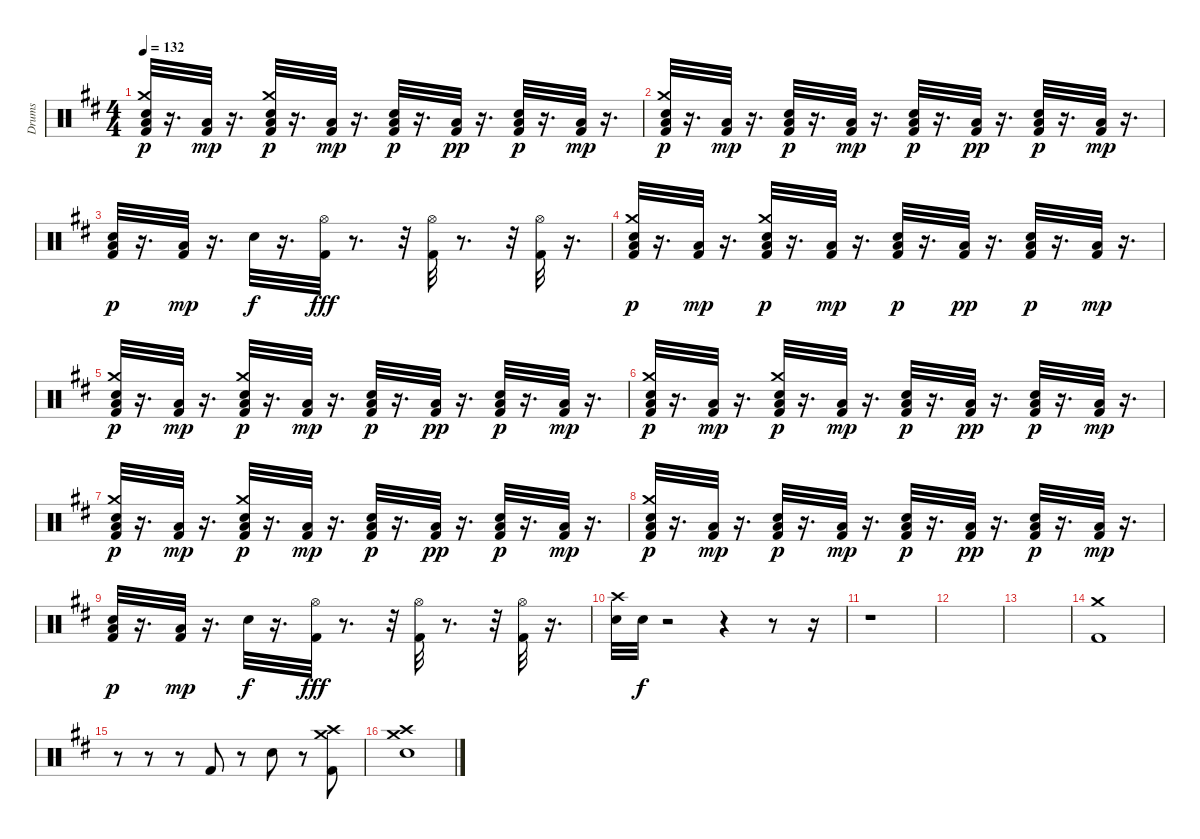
\track ("Drums" "Drums") {instrument percussion}
\staff {score}
\articulation defaults
\ts (4 4)
\tempo 132
\clef neutral
\ks d
("Electric Snare (hit)" "Crash medium (hit)" "Low Floor Tom (hit)" "Kick (hit) 2").32{dy p} r.16{d} ("Low Floor Tom (hit)" "Kick (hit) 2").32{dy mp} r.16{d} ("Kick (hit) 2" "Crash medium (hit)" "Low Floor Tom (hit)" "Electric Snare (hit)").32{dy p} r.16{d} ("Low Floor Tom (hit)" "Kick (hit) 2").32{dy mp} r.16{d} ("Electric Snare (hit)" "Kick (hit) 2" "Low Floor Tom (hit)").32{dy p} r.16{d} ("Kick (hit) 2" "Low Floor Tom (hit)").32{dy pp} r.16{d} ("Kick (hit) 2" "Low Floor Tom (hit)" "Electric Snare (hit)").32{dy p} r.16{d} ("Low Floor Tom (hit)" "Kick (hit) 2").32{dy mp} r.16{d} |
("Electric Snare (hit)" "Crash medium (hit)" "Low Floor Tom (hit)" "Kick (hit) 2").32{dy p} r.16{d} ("Low Floor Tom (hit)" "Kick (hit) 2").32{dy mp} r.16{d} ("Kick (hit) 2" "Low Floor Tom (hit)" "Electric Snare (hit)").32{dy p} r.16{d} ("Low Floor Tom (hit)" "Kick (hit) 2").32{dy mp} r.16{d} ("Electric Snare (hit)" "Kick (hit) 2" "Low Floor Tom (hit)").32{dy p} r.16{d} ("Kick (hit) 2" "Low Floor Tom (hit)").32{dy pp} r.16{d} ("Kick (hit) 2" "Low Floor Tom (hit)" "Electric Snare (hit)").32{dy p} r.16{d} ("Low Floor Tom (hit)" "Kick (hit) 2").32{dy mp} r.16{d} |
("Electric Snare (hit)" "Low Floor Tom (hit)" "Kick (hit) 2").32{dy p} r.16{d} ("Low Floor Tom (hit)" "Kick (hit) 2").32{dy mp} r.16{d} "Electric Snare (hit)".32{dy f} r.16{d} ("Hi-Hat (open)" "Kick (hit) 2").32{dy fff} r.8{d} r.32 ("Hi-Hat (open)" "Kick (hit) 2").32 r.8{d} r.32 ("Kick (hit) 2" "Hi-Hat (open)").32 r.16{d} |
("Electric Snare (hit)" "Crash medium (hit)" "Low Floor Tom (hit)" "Kick (hit) 2").32{dy p} r.16{d} ("Low Floor Tom (hit)" "Kick (hit) 2").32{dy mp} r.16{d} ("Kick (hit) 2" "Crash medium (hit)" "Low Floor Tom (hit)" "Electric Snare (hit)").32{dy p} r.16{d} ("Low Floor Tom (hit)" "Kick (hit) 2").32{dy mp} r.16{d} ("Electric Snare (hit)" "Kick (hit) 2" "Low Floor Tom (hit)").32{dy p} r.16{d} ("Kick (hit) 2" "Low Floor Tom (hit)").32{dy pp} r.16{d} ("Kick (hit) 2" "Low Floor Tom (hit)" "Electric Snare (hit)").32{dy p} r.16{d} ("Low Floor Tom (hit)" "Kick (hit) 2").32{dy mp} r.16{d} |
("Electric Snare (hit)" "Crash medium (hit)" "Low Floor Tom (hit)" "Kick (hit) 2").32{dy p} r.16{d} ("Low Floor Tom (hit)" "Kick (hit) 2").32{dy mp} r.16{d} ("Kick (hit) 2" "Crash medium (hit)" "Low Floor Tom (hit)" "Electric Snare (hit)").32{dy p} r.16{d} ("Low Floor Tom (hit)" "Kick (hit) 2").32{dy mp} r.16{d} ("Electric Snare (hit)" "Kick (hit) 2" "Low Floor Tom (hit)").32{dy p} r.16{d} ("Kick (hit) 2" "Low Floor Tom (hit)").32{dy pp} r.16{d} ("Kick (hit) 2" "Low Floor Tom (hit)" "Electric Snare (hit)").32{dy p} r.16{d} ("Low Floor Tom (hit)" "Kick (hit) 2").32{dy mp} r.16{d} |
("Electric Snare (hit)" "Crash medium (hit)" "Low Floor Tom (hit)" "Kick (hit) 2").32{dy p} r.16{d} ("Low Floor Tom (hit)" "Kick (hit) 2").32{dy mp} r.16{d} ("Kick (hit) 2" "Crash medium (hit)" "Low Floor Tom (hit)" "Electric Snare (hit)").32{dy p} r.16{d} ("Low Floor Tom (hit)" "Kick (hit) 2").32{dy mp} r.16{d} ("Electric Snare (hit)" "Kick (hit) 2" "Low Floor Tom (hit)").32{dy p} r.16{d} ("Kick (hit) 2" "Low Floor Tom (hit)").32{dy pp} r.16{d} ("Kick (hit) 2" "Low Floor Tom (hit)" "Electric Snare (hit)").32{dy p} r.16{d} ("Low Floor Tom (hit)" "Kick (hit) 2").32{dy mp} r.16{d} |
("Electric Snare (hit)" "Crash medium (hit)" "Low Floor Tom (hit)" "Kick (hit) 2").32{dy p} r.16{d} ("Low Floor Tom (hit)" "Kick (hit) 2").32{dy mp} r.16{d} ("Kick (hit) 2" "Crash medium (hit)" "Low Floor Tom (hit)" "Electric Snare (hit)").32{dy p} r.16{d} ("Low Floor Tom (hit)" "Kick (hit) 2").32{dy mp} r.16{d} ("Electric Snare (hit)" "Kick (hit) 2" "Low Floor Tom (hit)").32{dy p} r.16{d} ("Kick (hit) 2" "Low Floor Tom (hit)").32{dy pp} r.16{d} ("Kick (hit) 2" "Low Floor Tom (hit)" "Electric Snare (hit)").32{dy p} r.16{d} ("Low Floor Tom (hit)" "Kick (hit) 2").32{dy mp} r.16{d} |
("Electric Snare (hit)" "Crash medium (hit)" "Low Floor Tom (hit)" "Kick (hit) 2").32{dy p} r.16{d} ("Low Floor Tom (hit)" "Kick (hit) 2").32{dy mp} r.16{d} ("Kick (hit) 2" "Low Floor Tom (hit)" "Electric Snare (hit)").32{dy p} r.16{d} ("Low Floor Tom (hit)" "Kick (hit) 2").32{dy mp} r.16{d} ("Electric Snare (hit)" "Kick (hit) 2" "Low Floor Tom (hit)").32{dy p} r.16{d} ("Kick (hit) 2" "Low Floor Tom (hit)").32{dy pp} r.16{d} ("Kick (hit) 2" "Low Floor Tom (hit)" "Electric Snare (hit)").32{dy p} r.16{d} ("Low Floor Tom (hit)" "Kick (hit) 2").32{dy mp} r.16{d} |
("Electric Snare (hit)" "Low Floor Tom (hit)" "Kick (hit) 2").32{dy p} r.16{d} ("Low Floor Tom (hit)" "Kick (hit) 2").32{dy mp} r.16{d} "Electric Snare (hit)".32{dy f} r.16{d} ("Hi-Hat (open)" "Kick (hit) 2").32{dy fff} r.8{d} r.32 ("Hi-Hat (open)" "Kick (hit) 2").32 r.8{d} r.32 ("Kick (hit) 2" "Hi-Hat (open)").32 r.16{d} |
("Crash high (hit)" "Electric Snare (hit)").32 "Snare (hit) 2".32{dy f} r.2 r.4 r.8 r.16 |
r.1 |
|
|
("Crash medium (hit)" "Kick (hit) 2").1 |
r.8 r.8 r.8 "Kick (hit) 2".8 r.8 "Snare (hit) 2".8 r.8 ("Kick (hit) 2" "Crash medium (hit)" "Crash high (hit)").8 |
("Snare (hit) 2" "Crash medium (hit)" "Crash high (hit)").1
